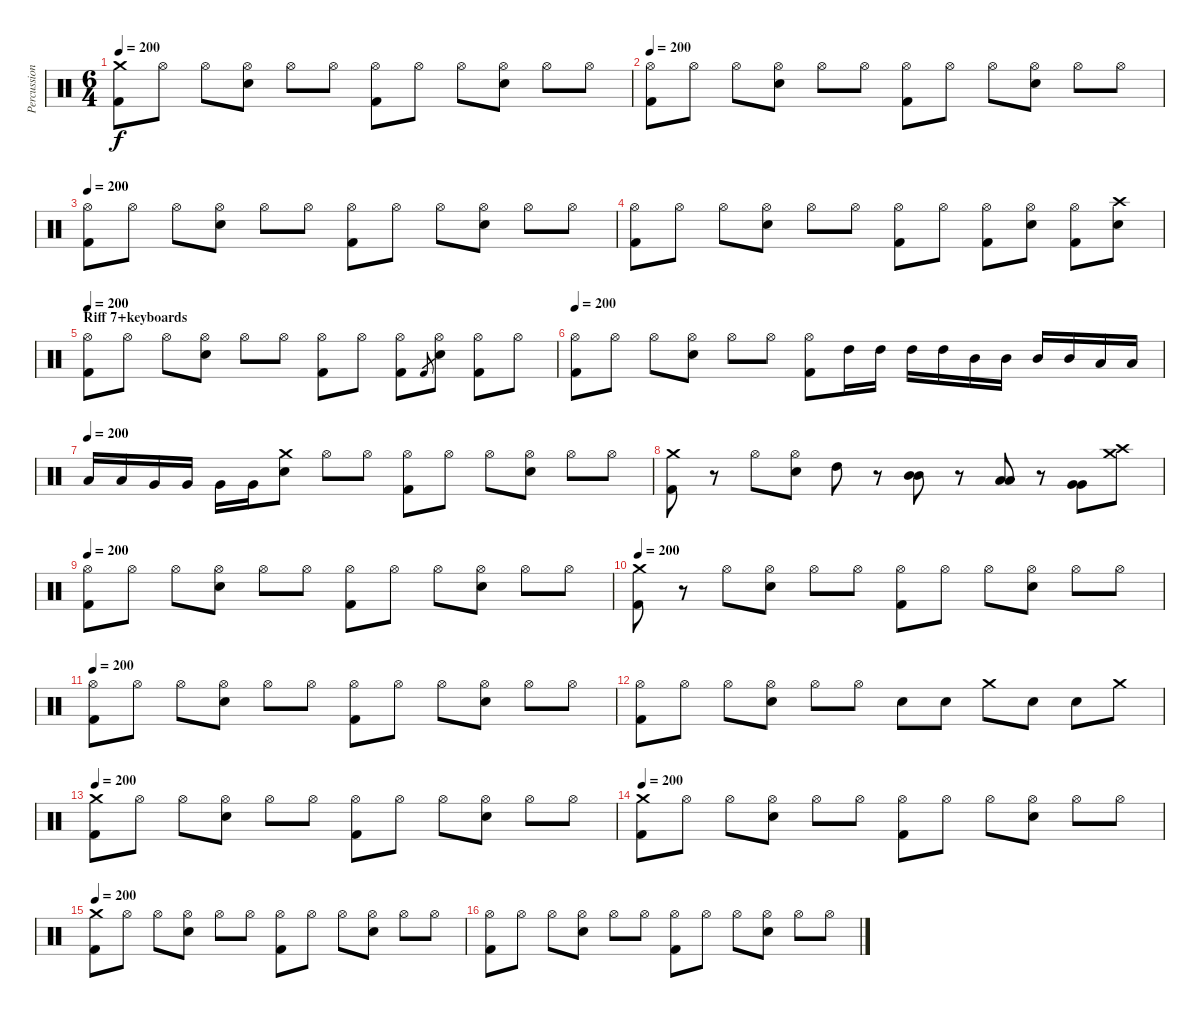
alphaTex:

\track ("Percussion" "Percussion") {instrument percussion}
\staff {score}
\articulation defaults
\ts (6 4)
\tempo 200
\clef neutral
\ks c
("Crash medium (hit)" "Kick (hit) 2").8{dy f} "Hi-Hat (open)".8 "Hi-Hat (open)".8 ("Hi-Hat (open)" "Electric Snare (hit)").8 "Hi-Hat (open)".8 "Hi-Hat (open)".8 ("Hi-Hat (open)" "Kick (hit) 2").8 "Hi-Hat (open)".8 "Hi-Hat (open)".8 ("Hi-Hat (open)" "Electric Snare (hit)").8 "Hi-Hat (open)".8 "Hi-Hat (open)".8 |
\tempo 200
("Hi-Hat (open)" "Kick (hit) 2").8 "Hi-Hat (open)".8 "Hi-Hat (open)".8 ("Hi-Hat (open)" "Electric Snare (hit)").8 "Hi-Hat (open)".8 "Hi-Hat (open)".8 ("Hi-Hat (open)" "Kick (hit) 2").8 "Hi-Hat (open)".8 "Hi-Hat (open)".8 ("Hi-Hat (open)" "Electric Snare (hit)").8 "Hi-Hat (open)".8 "Hi-Hat (open)".8 |
\tempo 200
("Hi-Hat (open)" "Kick (hit) 2").8 "Hi-Hat (open)".8 "Hi-Hat (open)".8 ("Hi-Hat (open)" "Electric Snare (hit)").8 "Hi-Hat (open)".8 "Hi-Hat (open)".8 ("Hi-Hat (open)" "Kick (hit) 2").8 "Hi-Hat (open)".8 "Hi-Hat (open)".8 ("Hi-Hat (open)" "Electric Snare (hit)").8 "Hi-Hat (open)".8 "Hi-Hat (open)".8 |
("Hi-Hat (open)" "Kick (hit) 2").8 "Hi-Hat (open)".8 "Hi-Hat (open)".8 ("Hi-Hat (open)" "Electric Snare (hit)").8 "Hi-Hat (open)".8 "Hi-Hat (open)".8 ("Hi-Hat (open)" "Kick (hit) 2").8 "Hi-Hat (open)".8 ("Hi-Hat (open)" "Kick (hit) 2").8 ("Hi-Hat (open)" "Electric Snare (hit)").8 ("Hi-Hat (open)" "Kick (hit) 2").8 ("Crash high (hit)" "Electric Snare (hit)").8 |
\section ("" "Riff 7+keyboards")
\tempo 200
("Hi-Hat (open)" "Kick (hit) 2").8 "Hi-Hat (open)".8 "Hi-Hat (open)".8 ("Hi-Hat (open)" "Electric Snare (hit)").8 "Hi-Hat (open)".8 "Hi-Hat (open)".8 ("Hi-Hat (open)" "Kick (hit) 2").8 "Hi-Hat (open)".8 ("Hi-Hat (open)" "Kick (hit) 2").8 "Kick (hit) 2".8{gr} ("Hi-Hat (open)" "Electric Snare (hit)").8 ("Hi-Hat (open)" "Kick (hit) 2").8 "Hi-Hat (open)".8 |
\tempo 200
("Hi-Hat (open)" "Kick (hit) 2").8 "Hi-Hat (open)".8 "Hi-Hat (open)".8 ("Hi-Hat (open)" "Electric Snare (hit)").8 "Hi-Hat (open)".8 "Hi-Hat (open)".8 ("Hi-Hat (open)" "Kick (hit) 2").8 "High Tom (hit)".16 "High Tom (hit)".16 "High Tom (hit)".16 "High Tom (hit)".16 "Mid Tom (hit)".16 "Mid Tom (hit)".16 "Mid Tom (hit)".16 "Mid Tom (hit)".16 "Low Tom (hit)".16 "Low Tom (hit)".16 |
\tempo (200)
"Low Tom (hit)".16 "Low Tom (hit)".16 "Very Low Tom (hit)".16 "Very Low Tom (hit)".16 "Very Low Tom (hit)".16 "Very Low Tom (hit)".16 ("Crash medium (hit)" "Electric Snare (hit)").8 "Hi-Hat (open)".8 "Hi-Hat (open)".8 ("Hi-Hat (open)" "Kick (hit) 2").8 "Hi-Hat (open)".8 "Hi-Hat (open)".8 ("Hi-Hat (open)" "Electric Snare (hit)").8 "Hi-Hat (open)".8 "Hi-Hat (open)".8 |
("Crash medium (hit)" "Kick (hit) 2").8 r.8 "Hi-Hat (open)".8 ("Hi-Hat (open)" "Electric Snare (hit)").8 "High Tom (hit)".8 r.8 ("Mid Tom (hit)" "Mid Tom (hit)").8 r.8 ("Low Tom (hit)" "Low Tom (hit)").8 r.8 ("Very Low Tom (hit)" "Very Low Tom (hit)").8 ("Crash medium (hit)" "Crash high (hit)").8 |
\tempo 200
("Hi-Hat (open)" "Kick (hit) 2").8 "Hi-Hat (open)".8 "Hi-Hat (open)".8 ("Hi-Hat (open)" "Electric Snare (hit)").8 "Hi-Hat (open)".8 "Hi-Hat (open)".8 ("Hi-Hat (open)" "Kick (hit) 2").8 "Hi-Hat (open)".8 "Hi-Hat (open)".8 ("Hi-Hat (open)" "Electric Snare (hit)").8 "Hi-Hat (open)".8 "Hi-Hat (open)".8 |
\tempo 200
("Crash medium (hit)" "Kick (hit) 2").8 r.8 "Hi-Hat (open)".8 ("Hi-Hat (open)" "Electric Snare (hit)").8 "Hi-Hat (open)".8 "Hi-Hat (open)".8 ("Hi-Hat (open)" "Kick (hit) 2").8 "Hi-Hat (open)".8 "Hi-Hat (open)".8 ("Hi-Hat (open)" "Electric Snare (hit)").8 "Hi-Hat (open)".8 "Hi-Hat (open)".8 |
\tempo 200
("Hi-Hat (open)" "Kick (hit) 2").8 "Hi-Hat (open)".8 "Hi-Hat (open)".8 ("Hi-Hat (open)" "Electric Snare (hit)").8 "Hi-Hat (open)".8 "Hi-Hat (open)".8 ("Hi-Hat (open)" "Kick (hit) 2").8 "Hi-Hat (open)".8 "Hi-Hat (open)".8 ("Hi-Hat (open)" "Electric Snare (hit)").8 "Hi-Hat (open)".8 "Hi-Hat (open)".8 |
("Hi-Hat (open)" "Kick (hit) 2").8 "Hi-Hat (open)".8 "Hi-Hat (open)".8 ("Hi-Hat (open)" "Electric Snare (hit)").8 "Hi-Hat (open)".8 "Hi-Hat (open)".8 "Electric Snare (hit)".8 "Electric Snare (hit)".8 "Crash medium (hit)".8 "Electric Snare (hit)".8 "Electric Snare (hit)".8 "Crash medium (hit)".8 |
\tempo 200
("Crash medium (hit)" "Kick (hit) 2").8 "Hi-Hat (open)".8 "Hi-Hat (open)".8 ("Hi-Hat (open)" "Electric Snare (hit)").8 "Hi-Hat (open)".8 "Hi-Hat (open)".8 ("Hi-Hat (open)" "Kick (hit) 2").8 "Hi-Hat (open)".8 "Hi-Hat (open)".8 ("Hi-Hat (open)" "Electric Snare (hit)").8 "Hi-Hat (open)".8 "Hi-Hat (open)".8 |
\tempo 200
("Crash medium (hit)" "Kick (hit) 2").8 "Hi-Hat (open)".8 "Hi-Hat (open)".8 ("Hi-Hat (open)" "Electric Snare (hit)").8 "Hi-Hat (open)".8 "Hi-Hat (open)".8 ("Hi-Hat (open)" "Kick (hit) 2").8 "Hi-Hat (open)".8 "Hi-Hat (open)".8 ("Hi-Hat (open)" "Electric Snare (hit)").8 "Hi-Hat (open)".8 "Hi-Hat (open)".8 |
\tempo 200
("Crash medium (hit)" "Kick (hit) 2").8 "Hi-Hat (open)".8 "Hi-Hat (open)".8 ("Hi-Hat (open)" "Electric Snare (hit)").8 "Hi-Hat (open)".8 "Hi-Hat (open)".8 ("Hi-Hat (open)" "Kick (hit) 2").8 "Hi-Hat (open)".8 "Hi-Hat (open)".8 ("Hi-Hat (open)" "Electric Snare (hit)").8 "Hi-Hat (open)".8 "Hi-Hat (open)".8 |
("Hi-Hat (open)" "Kick (hit) 2").8 "Hi-Hat (open)".8 "Hi-Hat (open)".8 ("Hi-Hat (open)" "Electric Snare (hit)").8 "Hi-Hat (open)".8 "Hi-Hat (open)".8 ("Hi-Hat (open)" "Kick (hit) 2").8 "Hi-Hat (open)".8 "Hi-Hat (open)".8 ("Hi-Hat (open)" "Electric Snare (hit)").8 "Hi-Hat (open)".8 "Hi-Hat (open)".8
